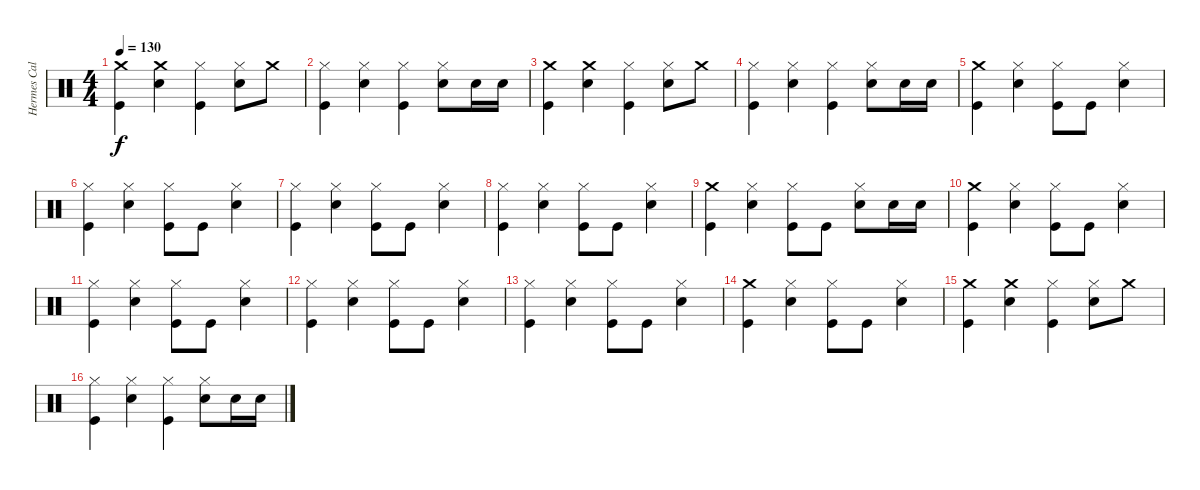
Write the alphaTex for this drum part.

\track ("Hermes Calabria" "Hermes Cal") {instrument percussion}
\staff {score}
\articulation defaults
\ts (4 4)
\tempo 130
\clef neutral
\ks c
("Crash medium (hit)" "Kick (hit)").4{dy f} ("Crash medium (hit)" "Snare (hit) 2").4 ("Hi-Hat (closed)" "Kick (hit)").4 ("Hi-Hat (closed)" "Snare (hit) 2").8 "Crash medium (hit)".8 |
("Hi-Hat (closed)" "Kick (hit)").4 ("Hi-Hat (closed)" "Snare (hit) 2").4 ("Hi-Hat (closed)" "Kick (hit)").4 ("Hi-Hat (closed)" "Snare (hit) 2").8 "Snare (hit) 2".16 "Snare (hit) 2".16 |
("Crash medium (hit)" "Kick (hit)").4 ("Crash medium (hit)" "Snare (hit) 2").4 ("Hi-Hat (closed)" "Kick (hit)").4 ("Hi-Hat (closed)" "Snare (hit) 2").8 "Crash medium (hit)".8 |
("Hi-Hat (closed)" "Kick (hit)").4 ("Hi-Hat (closed)" "Snare (hit) 2").4 ("Hi-Hat (closed)" "Kick (hit)").4 ("Hi-Hat (closed)" "Snare (hit) 2").8 "Snare (hit) 2".16 "Snare (hit) 2".16 |
("Crash medium (hit)" "Kick (hit)").4 ("Hi-Hat (closed)" "Snare (hit) 2").4 ("Hi-Hat (closed)" "Kick (hit)").8 "Kick (hit)".8 ("Hi-Hat (closed)" "Snare (hit) 2").4 |
("Hi-Hat (closed)" "Kick (hit)").4 ("Hi-Hat (closed)" "Snare (hit) 2").4 ("Hi-Hat (closed)" "Kick (hit)").8 "Kick (hit)".8 ("Hi-Hat (closed)" "Snare (hit) 2").4 |
("Hi-Hat (closed)" "Kick (hit)").4 ("Hi-Hat (closed)" "Snare (hit) 2").4 ("Hi-Hat (closed)" "Kick (hit)").8 "Kick (hit)".8 ("Hi-Hat (closed)" "Snare (hit) 2").4 |
("Hi-Hat (closed)" "Kick (hit)").4 ("Hi-Hat (closed)" "Snare (hit) 2").4 ("Hi-Hat (closed)" "Kick (hit)").8 "Kick (hit)".8 ("Hi-Hat (closed)" "Snare (hit) 2").4 |
("Crash medium (hit)" "Kick (hit)").4 ("Hi-Hat (closed)" "Snare (hit) 2").4 ("Hi-Hat (closed)" "Kick (hit)").8 "Kick (hit)".8 ("Hi-Hat (closed)" "Snare (hit) 2").8 "Snare (hit) 2".16 "Snare (hit) 2".16 |
("Crash medium (hit)" "Kick (hit)").4 ("Hi-Hat (closed)" "Snare (hit) 2").4 ("Hi-Hat (closed)" "Kick (hit)").8 "Kick (hit)".8 ("Hi-Hat (closed)" "Snare (hit) 2").4 |
("Hi-Hat (closed)" "Kick (hit)").4 ("Hi-Hat (closed)" "Snare (hit) 2").4 ("Hi-Hat (closed)" "Kick (hit)").8 "Kick (hit)".8 ("Hi-Hat (closed)" "Snare (hit) 2").4 |
("Hi-Hat (closed)" "Kick (hit)").4 ("Hi-Hat (closed)" "Snare (hit) 2").4 ("Hi-Hat (closed)" "Kick (hit)").8 "Kick (hit)".8 ("Hi-Hat (closed)" "Snare (hit) 2").4 |
("Hi-Hat (closed)" "Kick (hit)").4 ("Hi-Hat (closed)" "Snare (hit) 2").4 ("Hi-Hat (closed)" "Kick (hit)").8 "Kick (hit)".8 ("Hi-Hat (closed)" "Snare (hit) 2").4 |
("Crash medium (hit)" "Kick (hit)").4 ("Hi-Hat (closed)" "Snare (hit) 2").4 ("Hi-Hat (closed)" "Kick (hit)").8 "Kick (hit)".8 ("Hi-Hat (closed)" "Snare (hit) 2").4 |
("Crash medium (hit)" "Kick (hit)").4 ("Crash medium (hit)" "Snare (hit) 2").4 ("Hi-Hat (closed)" "Kick (hit)").4 ("Hi-Hat (closed)" "Snare (hit) 2").8 "Crash medium (hit)".8 |
("Hi-Hat (closed)" "Kick (hit)").4 ("Hi-Hat (closed)" "Snare (hit) 2").4 ("Hi-Hat (closed)" "Kick (hit)").4 ("Hi-Hat (closed)" "Snare (hit) 2").8 "Snare (hit) 2".16 "Snare (hit) 2".16
